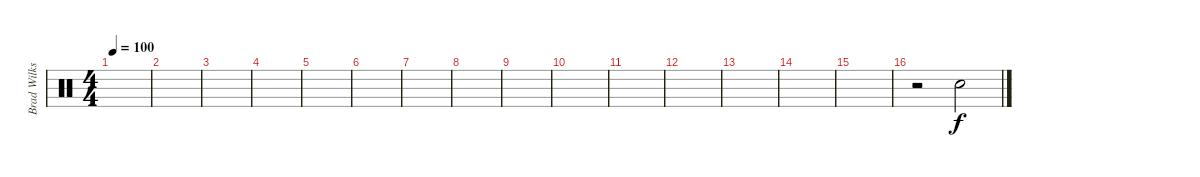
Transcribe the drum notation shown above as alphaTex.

\track ("Brad Wilks (some extras)" "Brad Wilks") {instrument percussion}
\staff {score}
\articulation defaults
\ts (4 4)
\tempo 100
\clef neutral
\ks c
|
|
|
|
|
|
|
|
|
|
|
|
|
|
|
r.2 "Electric Snare (hit)".2{dy f}
